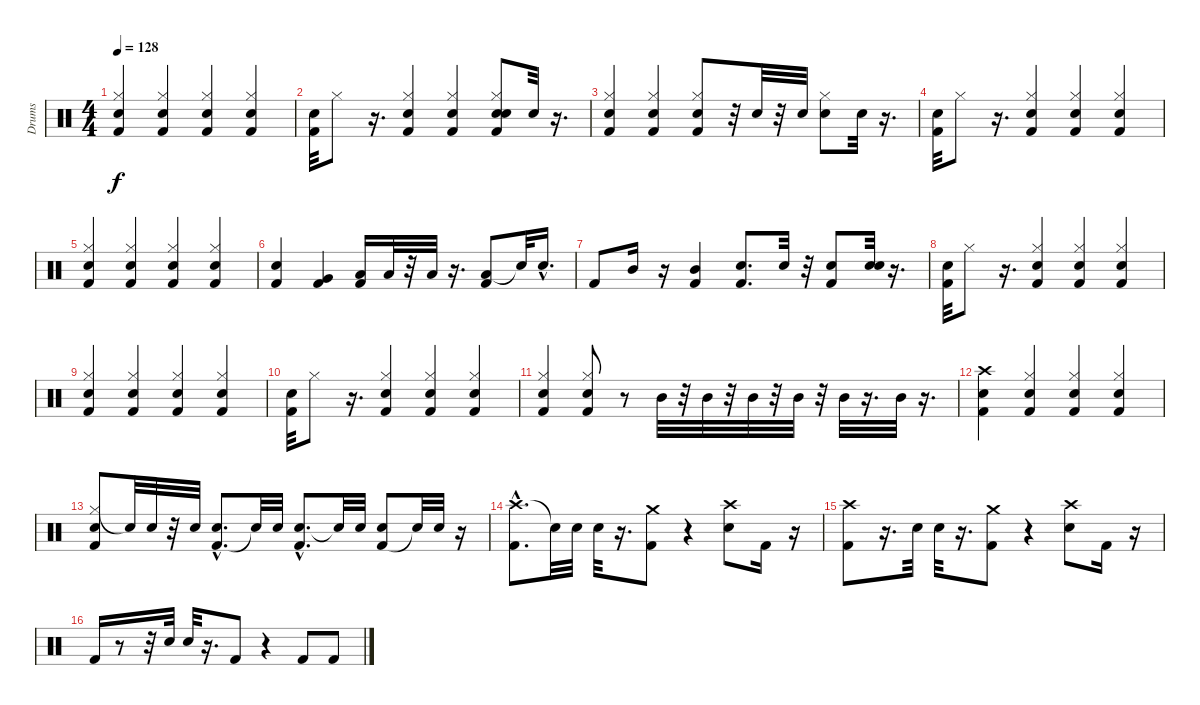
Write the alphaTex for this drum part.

\track ("Drums" "Drums") {instrument percussion}
\staff {score}
\articulation defaults
\ts (4 4)
\tempo 128
\clef neutral
\ks c
("Kick (hit) 2" "Hi-Hat (closed)" "Snare (hit) 2").4{dy f} ("Snare (hit) 2" "Kick (hit) 2" "Hi-Hat (closed)").4 ("Kick (hit) 2" "Snare (hit) 2" "Hi-Hat (closed)").4 ("Snare (hit) 2" "Hi-Hat (closed)" "Kick (hit) 2").4 |
("Snare (hit) 2" "Kick (hit) 2").32 "Hi-Hat (closed)".8 r.16{d} ("Kick (hit) 2" "Snare (hit) 2" "Hi-Hat (closed)").4 ("Hi-Hat (closed)" "Snare (hit) 2" "Kick (hit) 2").4 ("Hi-Hat (closed)" "Kick (hit) 2" "Snare (hit) 2" "Snare (hit) 2").8 "Snare (hit) 2".32 r.16{d} |
("Hi-Hat (closed)" "Snare (hit) 2" "Kick (hit) 2").4 ("Kick (hit) 2" "Hi-Hat (closed)" "Snare (hit) 2").4 ("Kick (hit) 2" "Snare (hit) 2" "Hi-Hat (closed)").8 r.32 "Snare (hit) 2".32 r.32 "Snare (hit) 2".32 ("Hi-Hat (closed)" "Snare (hit) 2").8 "Snare (hit) 2".32 r.16{d} |
("Snare (hit) 2" "Kick (hit) 2").32 "Hi-Hat (closed)".8 r.16{d} ("Kick (hit) 2" "Snare (hit) 2" "Hi-Hat (closed)").4 ("Hi-Hat (closed)" "Kick (hit) 2" "Snare (hit) 2").4 ("Kick (hit) 2" "Hi-Hat (closed)" "Snare (hit) 2").4 |
("Snare (hit) 2" "Kick (hit) 2" "Hi-Hat (closed)").4 ("Snare (hit) 2" "Kick (hit) 2" "Hi-Hat (closed)").4 ("Snare (hit) 2" "Hi-Hat (closed)" "Kick (hit) 2").4 ("Kick (hit) 2" "Snare (hit) 2" "Hi-Hat (closed)").4 |
("Snare (hit) 2" "Kick (hit) 2").4 ("Kick (hit) 2" "Very Low Tom (hit)").4 ("Kick (hit) 2" "Low Tom (hit)").16 "Low Tom (hit)".32 r.32 "Low Tom (hit)".32 r.16{d} ("Low Tom (hit)" "Kick (hit) 2").8 "Snare (hit)"{t}.32 "Snare (hit) 2"{hac}.16{d} |
"Kick (hit) 2".8 "Mid Tom (hit)".16 r.16 ("Kick (hit) 2" "Mid Tom (hit)").4 ("Kick (hit) 2" "Snare (hit) 2").8{d} "Snare (hit) 2".32 r.32 ("Kick (hit) 2" "Snare (hit) 2").8 ("Snare (hit) 2" "Electric Snare (hit)").32 r.16{d} |
("Kick (hit) 2" "Snare (hit) 2").32 "Hi-Hat (closed)".8 r.16{d} ("Kick (hit) 2" "Snare (hit) 2" "Hi-Hat (closed)").4 ("Hi-Hat (closed)" "Snare (hit) 2" "Kick (hit) 2").4 ("Snare (hit) 2" "Kick (hit) 2" "Hi-Hat (closed)").4 |
("Kick (hit) 2" "Hi-Hat (closed)" "Snare (hit) 2").4 ("Kick (hit) 2" "Hi-Hat (closed)" "Snare (hit) 2").4 ("Hi-Hat (closed)" "Snare (hit) 2" "Kick (hit) 2").4 ("Snare (hit) 2" "Kick (hit) 2" "Hi-Hat (closed)").4 |
("Snare (hit) 2" "Kick (hit) 2").32 "Hi-Hat (closed)".8 r.16{d} ("Kick (hit) 2" "Hi-Hat (closed)" "Snare (hit) 2").4 ("Hi-Hat (closed)" "Kick (hit) 2" "Snare (hit) 2").4 ("Snare (hit) 2" "Hi-Hat (closed)" "Kick (hit) 2").4 |
("Snare (hit) 2" "Hi-Hat (closed)" "Kick (hit) 2").4 ("Kick (hit) 2" "Hi-Hat (closed)" "Snare (hit) 2").8 r.8 "Mid Tom (hit)".32 r.32 "Mid Tom (hit)".32 r.32 "Mid Tom (hit)".32 r.32 "Mid Tom (hit)".32 r.32 "Mid Tom (hit)".32 r.16{d} "Mid Tom (hit)".32 r.16{d} |
("Kick (hit) 2" "Snare (hit) 2" "Crash high (hit)").4 ("Snare (hit) 2" "Kick (hit) 2" "Hi-Hat (closed)").4 ("Kick (hit) 2" "Snare (hit) 2" "Hi-Hat (closed)").4 ("Hi-Hat (closed)" "Snare (hit) 2" "Kick (hit) 2").4 |
("Hi-Hat (closed)" "Snare (hit) 2" "Kick (hit) 2").8 "Snare (hit)"{t}.32 "Snare (hit) 2".32 r.32 "Snare (hit) 2".32 ("Kick (hit) 2"{hac} "Snare (hit) 2").8{d} "Snare (hit)"{t}.32 "Snare (hit) 2".32 ("Snare (hit) 2" "Kick (hit) 2"{hac}).8{d} "Snare (hit)"{t}.32 "Snare (hit) 2".32 ("Kick (hit) 2" "Snare (hit) 2").8 "Snare (hit)"{t}.32 "Snare (hit) 2".32 r.16 |
("Crash high (hit)"{hac} "Kick (hit) 2").8{d} "Snare (hit)"{t}.32 "Snare (hit) 2".32 "Snare (hit) 2".32 r.16{d} ("Kick (hit) 2" "Crash medium (hit)").8 r.4 ("Snare (hit) 2" "Crash high (hit)").8 "Kick (hit) 2".16 r.16 |
("Crash high (hit)" "Kick (hit) 2").8 r.16{d} "Snare (hit) 2".32 "Snare (hit) 2".32 r.16{d} ("Crash medium (hit)" "Kick (hit) 2").8 r.4 ("Snare (hit) 2" "Crash high (hit)").8 "Kick (hit) 2".16 r.16 |
"Kick (hit) 2".16 r.8 r.32 "Snare (hit) 2".32 "Snare (hit) 2".32 r.16{d} "Kick (hit) 2".8 r.4 "Kick (hit) 2".8 "Kick (hit) 2".8
